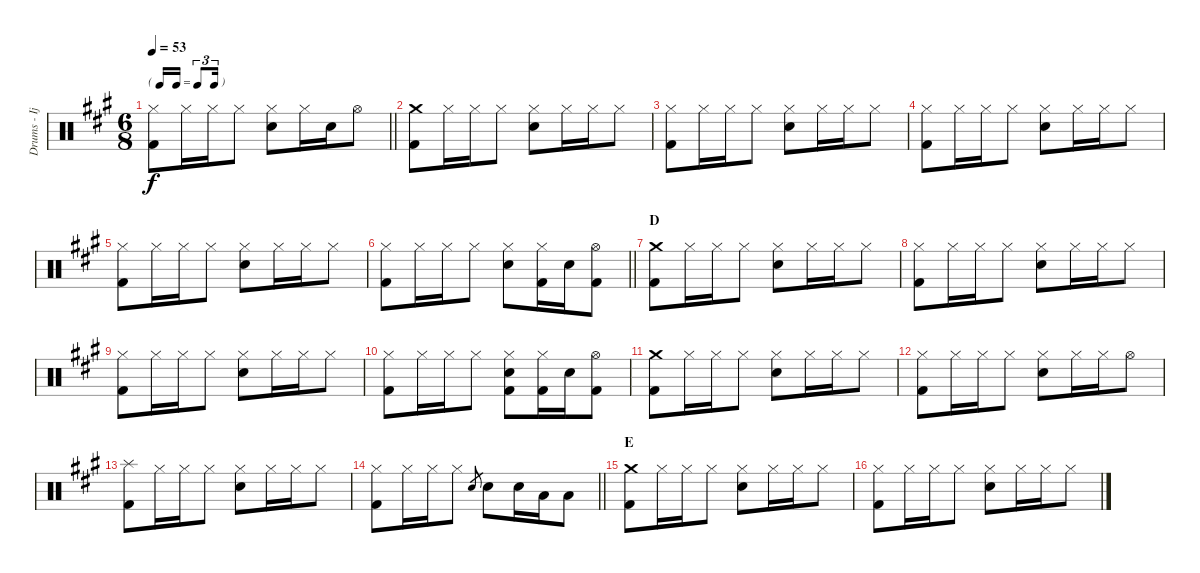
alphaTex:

\track ("Drums - Ijichi Kiyoshi" "Drums - Ij") {instrument percussion}
\staff {score}
\articulation defaults
\ts (6 8)
\tf triplet16th
\tempo 53
\clef neutral
\barLineRight lightlight
\ks a
("Hi-Hat (closed)" "Kick (hit) 2").8{dy f} "Hi-Hat (closed)".16 "Hi-Hat (closed)".16 "Hi-Hat (closed)".8 ("Hi-Hat (closed)" "Electric Snare (hit)").8 "Hi-Hat (closed)".16 "Electric Snare (hit)".16 "Hi-Hat (open)".8 |
("Crash medium (hit)" "Kick (hit) 2").8 "Hi-Hat (closed)".16 "Hi-Hat (closed)".16 "Hi-Hat (closed)".8 ("Hi-Hat (closed)" "Electric Snare (hit)").8 "Hi-Hat (closed)".16 "Hi-Hat (closed)".16 "Hi-Hat (closed)".8 |
("Hi-Hat (closed)" "Kick (hit) 2").8 "Hi-Hat (closed)".16 "Hi-Hat (closed)".16 "Hi-Hat (closed)".8 ("Hi-Hat (closed)" "Electric Snare (hit)").8 "Hi-Hat (closed)".16 "Hi-Hat (closed)".16 "Hi-Hat (closed)".8 |
("Hi-Hat (closed)" "Kick (hit) 2").8 "Hi-Hat (closed)".16 "Hi-Hat (closed)".16 "Hi-Hat (closed)".8 ("Hi-Hat (closed)" "Electric Snare (hit)").8 "Hi-Hat (closed)".16 "Hi-Hat (closed)".16 "Hi-Hat (closed)".8 |
("Hi-Hat (closed)" "Kick (hit) 2").8 "Hi-Hat (closed)".16 "Hi-Hat (closed)".16 "Hi-Hat (closed)".8 ("Hi-Hat (closed)" "Electric Snare (hit)").8 "Hi-Hat (closed)".16 "Hi-Hat (closed)".16 "Hi-Hat (closed)".8 |
\barLineRight lightlight
("Hi-Hat (closed)" "Kick (hit) 2").8 "Hi-Hat (closed)".16 "Hi-Hat (closed)".16 "Hi-Hat (closed)".8 ("Hi-Hat (closed)" "Electric Snare (hit)").8 ("Hi-Hat (closed)" "Kick (hit) 2").16 "Electric Snare (hit)".16 ("Hi-Hat (open)" "Kick (hit) 2").8 |
\section ("" "D")
("Crash medium (hit)" "Kick (hit) 2").8 "Hi-Hat (closed)".16 "Hi-Hat (closed)".16 "Hi-Hat (closed)".8 ("Hi-Hat (closed)" "Electric Snare (hit)").8 "Hi-Hat (closed)".16 "Hi-Hat (closed)".16 "Hi-Hat (closed)".8 |
("Hi-Hat (closed)" "Kick (hit) 2").8 "Hi-Hat (closed)".16 "Hi-Hat (closed)".16 "Hi-Hat (closed)".8 ("Hi-Hat (closed)" "Electric Snare (hit)").8 "Hi-Hat (closed)".16 "Hi-Hat (closed)".16 "Hi-Hat (closed)".8 |
("Hi-Hat (closed)" "Kick (hit) 2").8 "Hi-Hat (closed)".16 "Hi-Hat (closed)".16 "Hi-Hat (closed)".8 ("Hi-Hat (closed)" "Electric Snare (hit)").8 "Hi-Hat (closed)".16 "Hi-Hat (closed)".16 "Hi-Hat (closed)".8 |
("Hi-Hat (closed)" "Kick (hit) 2").8 "Hi-Hat (closed)".16 "Hi-Hat (closed)".16 "Hi-Hat (closed)".8 ("Hi-Hat (closed)" "Electric Snare (hit)" "Kick (hit) 2").8 ("Hi-Hat (closed)" "Kick (hit) 2").16 "Electric Snare (hit)".16 ("Hi-Hat (open)" "Kick (hit) 2").8 |
("Crash medium (hit)" "Kick (hit) 2").8 "Hi-Hat (closed)".16 "Hi-Hat (closed)".16 "Hi-Hat (closed)".8 ("Hi-Hat (closed)" "Electric Snare (hit)").8 "Hi-Hat (closed)".16 "Hi-Hat (closed)".16 "Hi-Hat (closed)".8 |
("Hi-Hat (closed)" "Kick (hit) 2").8 "Hi-Hat (closed)".16 "Hi-Hat (closed)".16 "Hi-Hat (closed)".8 ("Hi-Hat (closed)" "Electric Snare (hit)").8 "Hi-Hat (closed)".16 "Hi-Hat (closed)".16 "Hi-Hat (open)".8 |
("Splash (hit)" "Kick (hit) 2").8 "Hi-Hat (closed)".16 "Hi-Hat (closed)".16 "Hi-Hat (closed)".8 ("Hi-Hat (closed)" "Electric Snare (hit)").8 "Hi-Hat (closed)".16 "Hi-Hat (closed)".16 "Hi-Hat (closed)".8 |
\barLineRight lightlight
("Hi-Hat (closed)" "Kick (hit) 2").8 "Hi-Hat (closed)".16 "Hi-Hat (closed)".16 "Hi-Hat (closed)".8 "Electric Snare (hit)".8{gr} "Electric Snare (hit)".8 "Electric Snare (hit)".16 "Low Tom (hit)".16 "Low Tom (hit)".8 |
\section ("" "E")
("Crash medium (hit)" "Kick (hit) 2").8 "Hi-Hat (closed)".16 "Hi-Hat (closed)".16 "Hi-Hat (closed)".8 ("Hi-Hat (closed)" "Electric Snare (hit)").8 "Hi-Hat (closed)".16 "Hi-Hat (closed)".16 "Hi-Hat (closed)".8 |
("Hi-Hat (closed)" "Kick (hit) 2").8 "Hi-Hat (closed)".16 "Hi-Hat (closed)".16 "Hi-Hat (closed)".8 ("Hi-Hat (closed)" "Electric Snare (hit)").8 "Hi-Hat (closed)".16 "Hi-Hat (closed)".16 "Hi-Hat (closed)".8
